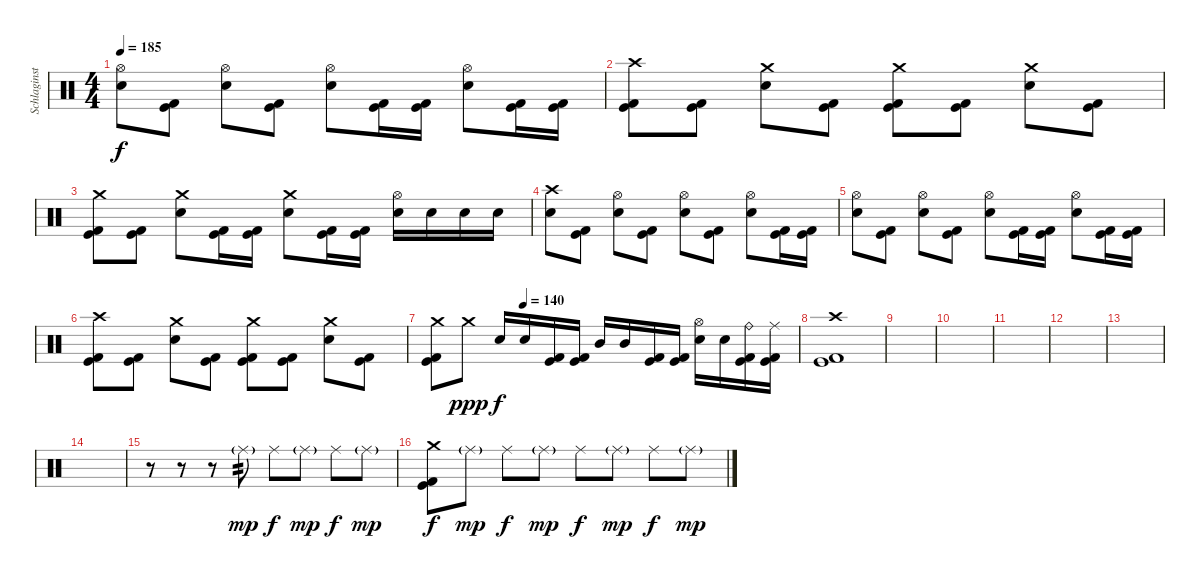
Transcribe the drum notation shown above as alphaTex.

\track ("Schlaginstrumente - Auswahl" "Schlaginst") {instrument percussion}
\staff {score}
\articulation defaults
\ts (4 4)
\tempo 185
\clef neutral
\ks c
("Hi-Hat (open)" "Electric Snare (hit)").8{dy f} ("Kick (hit)" "Kick (hit) 2").8 ("Hi-Hat (open)" "Electric Snare (hit)").8 ("Kick (hit)" "Kick (hit) 2").8 ("Hi-Hat (open)" "Electric Snare (hit)").8 ("Kick (hit)" "Kick (hit) 2").16 ("Kick (hit)" "Kick (hit) 2").16 ("Hi-Hat (open)" "Electric Snare (hit)").8 ("Kick (hit)" "Kick (hit) 2").16 ("Kick (hit)" "Kick (hit) 2").16 |
("Crash high (hit)" "Kick (hit)" "Kick (hit) 2").8 ("Kick (hit)" "Kick (hit) 2").8 ("Crash medium (hit)" "Electric Snare (hit)").8 ("Kick (hit)" "Kick (hit) 2").8 ("Crash medium (hit)" "Kick (hit)" "Kick (hit) 2").8 ("Kick (hit)" "Kick (hit) 2").8 ("Crash medium (hit)" "Electric Snare (hit)").8 ("Kick (hit)" "Kick (hit) 2").8 |
("Crash medium (hit)" "Kick (hit)" "Kick (hit) 2").8 ("Kick (hit)" "Kick (hit) 2").8 ("Crash medium (hit)" "Electric Snare (hit)").8 ("Kick (hit)" "Kick (hit) 2").16 ("Kick (hit)" "Kick (hit) 2").16 ("Crash medium (hit)" "Electric Snare (hit)").8 ("Kick (hit)" "Kick (hit) 2").16 ("Kick (hit)" "Kick (hit) 2").16 ("Hi-Hat (open)" "Electric Snare (hit)").16 "Electric Snare (hit)".16 "Electric Snare (hit)".16 "Electric Snare (hit)".16 |
("Crash high (hit)" "Electric Snare (hit)").8 ("Kick (hit)" "Kick (hit) 2").8 ("Hi-Hat (open)" "Electric Snare (hit)").8 ("Kick (hit)" "Kick (hit) 2").8 ("Hi-Hat (open)" "Electric Snare (hit)").8 ("Kick (hit)" "Kick (hit) 2").8 ("Hi-Hat (open)" "Electric Snare (hit)").8 ("Kick (hit)" "Kick (hit) 2").16 ("Kick (hit)" "Kick (hit) 2").16 |
("Hi-Hat (open)" "Electric Snare (hit)").8 ("Kick (hit)" "Kick (hit) 2").8 ("Hi-Hat (open)" "Electric Snare (hit)").8 ("Kick (hit)" "Kick (hit) 2").8 ("Hi-Hat (open)" "Electric Snare (hit)").8 ("Kick (hit)" "Kick (hit) 2").16 ("Kick (hit)" "Kick (hit) 2").16 ("Hi-Hat (open)" "Electric Snare (hit)").8 ("Kick (hit)" "Kick (hit) 2").16 ("Kick (hit)" "Kick (hit) 2").16 |
("Crash high (hit)" "Kick (hit)" "Kick (hit) 2").8 ("Kick (hit)" "Kick (hit) 2").8 ("Crash medium (hit)" "Electric Snare (hit)").8 ("Kick (hit)" "Kick (hit) 2").8 ("Crash medium (hit)" "Kick (hit)" "Kick (hit) 2").8 ("Kick (hit)" "Kick (hit) 2").8 ("Crash medium (hit)" "Electric Snare (hit)").8 ("Kick (hit)" "Kick (hit) 2").8 |
\tempo (140 0.25)
("Crash medium (hit)" "Kick (hit)" "Kick (hit) 2").8 "Crash medium (hit)".8{dy ppp} "Electric Snare (hit)".16{dy f} "Electric Snare (hit)".16 ("Kick (hit)" "Kick (hit) 2").16 ("Kick (hit)" "Kick (hit) 2").16 "Mid Tom (hit)".16 "Mid Tom (hit)".16 ("Kick (hit)" "Kick (hit) 2").16 ("Kick (hit)" "Kick (hit) 2").16 ("Hi-Hat (open)" "Electric Snare (hit)").16 "Electric Snare (hit)".16 ("Ride (bell)" "Kick (hit)" "Kick (hit) 2").16 ("Ride (middle)" "Kick (hit)" "Kick (hit) 2").16 |
("Crash high (hit)" "Kick (hit)" "Kick (hit) 2").1 |
|
|
|
|
|
|
r.8 r.8 r.8 "Ride (middle)"{g}.8{tp 2 dy mp} "Ride (middle)".8{dy f} "Ride (middle)"{g}.8{dy mp} "Ride (middle)".8{dy f} "Ride (middle)"{g}.8{dy mp} |
("Crash medium (hit)" "Kick (hit)" "Kick (hit) 2").8{dy f} "Ride (middle)"{g}.8{dy mp} "Ride (middle)".8{dy f} "Ride (middle)"{g}.8{dy mp} "Ride (middle)".8{dy f} "Ride (middle)"{g}.8{dy mp} "Ride (middle)".8{dy f} "Ride (middle)"{g}.8{dy mp}
